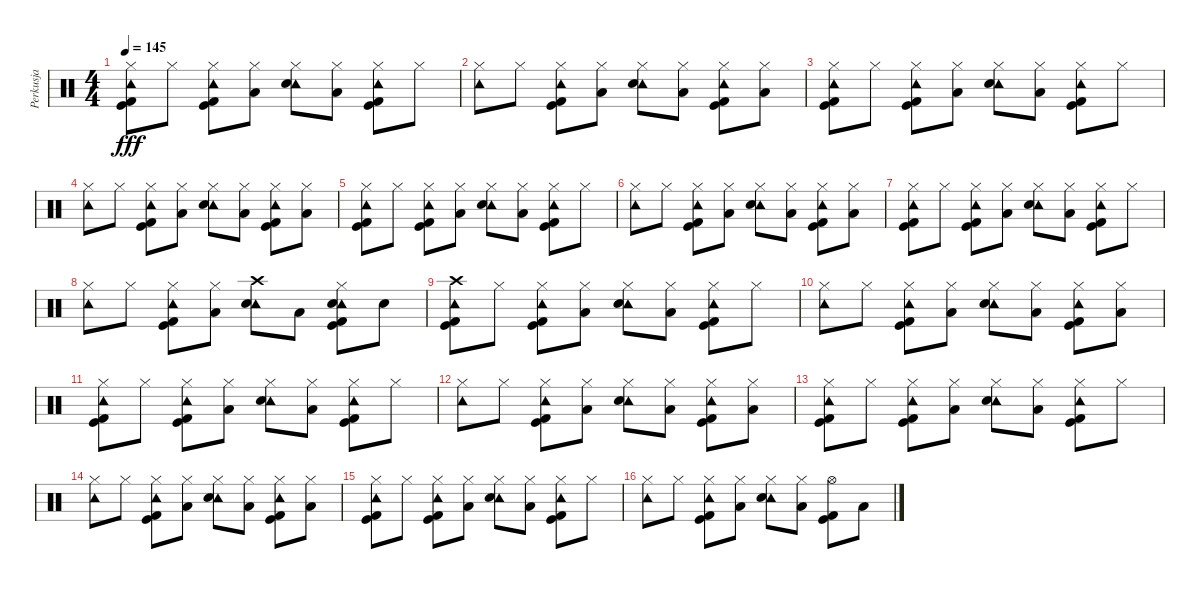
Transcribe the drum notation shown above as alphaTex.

\track ("Perkusja" "Perkusja") {instrument percussion}
\staff {score}
\articulation defaults
\ts (4 4)
\tempo 145
\clef neutral
\ks c
("Hi-Hat (closed)" "Tambourine (hit)" "Kick (hit)" "Kick (hit) 2").8{dy fff} "Hi-Hat (closed)".8 ("Hi-Hat (closed)" "Tambourine (hit)" "Kick (hit)" "Kick (hit) 2").8 ("Hi-Hat (closed)" "Low Floor Tom (hit)").8 ("Hi-Hat (closed)" "Tambourine (hit)" "Electric Snare (hit)").8 ("Hi-Hat (closed)" "Low Floor Tom (hit)").8 ("Hi-Hat (closed)" "Tambourine (hit)" "Kick (hit)" "Kick (hit) 2").8 "Hi-Hat (closed)".8 |
("Hi-Hat (closed)" "Tambourine (hit)").8 "Hi-Hat (closed)".8 ("Hi-Hat (closed)" "Tambourine (hit)" "Kick (hit)" "Kick (hit) 2").8 ("Hi-Hat (closed)" "Low Floor Tom (hit)").8 ("Hi-Hat (closed)" "Tambourine (hit)" "Electric Snare (hit)").8 ("Hi-Hat (closed)" "Low Floor Tom (hit)").8 ("Hi-Hat (closed)" "Tambourine (hit)" "Kick (hit)" "Kick (hit) 2").8 ("Hi-Hat (closed)" "Low Floor Tom (hit)").8 |
("Hi-Hat (closed)" "Tambourine (hit)" "Kick (hit)" "Kick (hit) 2").8 "Hi-Hat (closed)".8 ("Hi-Hat (closed)" "Tambourine (hit)" "Kick (hit)" "Kick (hit) 2").8 ("Hi-Hat (closed)" "Low Floor Tom (hit)").8 ("Hi-Hat (closed)" "Tambourine (hit)" "Electric Snare (hit)").8 ("Hi-Hat (closed)" "Low Floor Tom (hit)").8 ("Hi-Hat (closed)" "Tambourine (hit)" "Kick (hit)" "Kick (hit) 2").8 "Hi-Hat (closed)".8 |
("Hi-Hat (closed)" "Tambourine (hit)").8 "Hi-Hat (closed)".8 ("Hi-Hat (closed)" "Tambourine (hit)" "Kick (hit)" "Kick (hit) 2").8 ("Hi-Hat (closed)" "Low Floor Tom (hit)").8 ("Hi-Hat (closed)" "Tambourine (hit)" "Electric Snare (hit)").8 ("Hi-Hat (closed)" "Low Floor Tom (hit)").8 ("Hi-Hat (closed)" "Tambourine (hit)" "Kick (hit)" "Kick (hit) 2").8 ("Hi-Hat (closed)" "Low Floor Tom (hit)").8 |
("Hi-Hat (closed)" "Tambourine (hit)" "Kick (hit)" "Kick (hit) 2").8 "Hi-Hat (closed)".8 ("Hi-Hat (closed)" "Tambourine (hit)" "Kick (hit)" "Kick (hit) 2").8 ("Hi-Hat (closed)" "Low Floor Tom (hit)").8 ("Hi-Hat (closed)" "Tambourine (hit)" "Electric Snare (hit)").8 ("Hi-Hat (closed)" "Low Floor Tom (hit)").8 ("Hi-Hat (closed)" "Tambourine (hit)" "Kick (hit)" "Kick (hit) 2").8 "Hi-Hat (closed)".8 |
("Hi-Hat (closed)" "Tambourine (hit)").8 "Hi-Hat (closed)".8 ("Hi-Hat (closed)" "Tambourine (hit)" "Kick (hit)" "Kick (hit) 2").8 ("Hi-Hat (closed)" "Low Floor Tom (hit)").8 ("Hi-Hat (closed)" "Tambourine (hit)" "Electric Snare (hit)").8 ("Hi-Hat (closed)" "Low Floor Tom (hit)").8 ("Hi-Hat (closed)" "Tambourine (hit)" "Kick (hit)" "Kick (hit) 2").8 ("Hi-Hat (closed)" "Low Floor Tom (hit)").8 |
("Hi-Hat (closed)" "Tambourine (hit)" "Kick (hit)" "Kick (hit) 2").8 "Hi-Hat (closed)".8 ("Hi-Hat (closed)" "Tambourine (hit)" "Kick (hit)" "Kick (hit) 2").8 ("Hi-Hat (closed)" "Low Floor Tom (hit)").8 ("Hi-Hat (closed)" "Tambourine (hit)" "Electric Snare (hit)").8 ("Hi-Hat (closed)" "Low Floor Tom (hit)").8 ("Hi-Hat (closed)" "Tambourine (hit)" "Kick (hit)" "Kick (hit) 2").8 "Hi-Hat (closed)".8 |
("Hi-Hat (closed)" "Tambourine (hit)").8 "Hi-Hat (closed)".8 ("Hi-Hat (closed)" "Tambourine (hit)" "Kick (hit)" "Kick (hit) 2").8 ("Hi-Hat (closed)" "Low Floor Tom (hit)").8 ("Crash high (hit)" "Tambourine (hit)" "Electric Snare (hit)").8 "Low Floor Tom (hit)".8 ("Hi-Hat (closed)" "Tambourine (hit)" "Electric Snare (hit)" "Kick (hit)" "Kick (hit) 2").8 "Electric Snare (hit)".8 |
("Crash high (hit)" "Tambourine (hit)" "Kick (hit)" "Kick (hit) 2").8 "Hi-Hat (closed)".8 ("Hi-Hat (closed)" "Tambourine (hit)" "Kick (hit)" "Kick (hit) 2").8 ("Hi-Hat (closed)" "Low Floor Tom (hit)").8 ("Hi-Hat (closed)" "Tambourine (hit)" "Electric Snare (hit)").8 ("Hi-Hat (closed)" "Low Floor Tom (hit)").8 ("Hi-Hat (closed)" "Tambourine (hit)" "Kick (hit)" "Kick (hit) 2").8 "Hi-Hat (closed)".8 |
("Hi-Hat (closed)" "Tambourine (hit)").8 "Hi-Hat (closed)".8 ("Hi-Hat (closed)" "Tambourine (hit)" "Kick (hit)" "Kick (hit) 2").8 ("Hi-Hat (closed)" "Low Floor Tom (hit)").8 ("Hi-Hat (closed)" "Tambourine (hit)" "Electric Snare (hit)").8 ("Hi-Hat (closed)" "Low Floor Tom (hit)").8 ("Hi-Hat (closed)" "Tambourine (hit)" "Kick (hit)" "Kick (hit) 2").8 ("Hi-Hat (closed)" "Low Floor Tom (hit)").8 |
("Hi-Hat (closed)" "Tambourine (hit)" "Kick (hit)" "Kick (hit) 2").8 "Hi-Hat (closed)".8 ("Hi-Hat (closed)" "Tambourine (hit)" "Kick (hit)" "Kick (hit) 2").8 ("Hi-Hat (closed)" "Low Floor Tom (hit)").8 ("Hi-Hat (closed)" "Tambourine (hit)" "Electric Snare (hit)").8 ("Hi-Hat (closed)" "Low Floor Tom (hit)").8 ("Hi-Hat (closed)" "Tambourine (hit)" "Kick (hit)" "Kick (hit) 2").8 "Hi-Hat (closed)".8 |
("Hi-Hat (closed)" "Tambourine (hit)").8 "Hi-Hat (closed)".8 ("Hi-Hat (closed)" "Tambourine (hit)" "Kick (hit)" "Kick (hit) 2").8 ("Hi-Hat (closed)" "Low Floor Tom (hit)").8 ("Hi-Hat (closed)" "Tambourine (hit)" "Electric Snare (hit)").8 ("Hi-Hat (closed)" "Low Floor Tom (hit)").8 ("Hi-Hat (closed)" "Tambourine (hit)" "Kick (hit)" "Kick (hit) 2").8 ("Hi-Hat (closed)" "Low Floor Tom (hit)").8 |
("Hi-Hat (closed)" "Tambourine (hit)" "Kick (hit)" "Kick (hit) 2").8 "Hi-Hat (closed)".8 ("Hi-Hat (closed)" "Tambourine (hit)" "Kick (hit)" "Kick (hit) 2").8 ("Hi-Hat (closed)" "Low Floor Tom (hit)").8 ("Hi-Hat (closed)" "Tambourine (hit)" "Electric Snare (hit)").8 ("Hi-Hat (closed)" "Low Floor Tom (hit)").8 ("Hi-Hat (closed)" "Tambourine (hit)" "Kick (hit)" "Kick (hit) 2").8 "Hi-Hat (closed)".8 |
("Hi-Hat (closed)" "Tambourine (hit)").8 "Hi-Hat (closed)".8 ("Hi-Hat (closed)" "Tambourine (hit)" "Kick (hit)" "Kick (hit) 2").8 ("Hi-Hat (closed)" "Low Floor Tom (hit)").8 ("Hi-Hat (closed)" "Tambourine (hit)" "Electric Snare (hit)").8 ("Hi-Hat (closed)" "Low Floor Tom (hit)").8 ("Hi-Hat (closed)" "Tambourine (hit)" "Kick (hit)" "Kick (hit) 2").8 ("Hi-Hat (closed)" "Low Floor Tom (hit)").8 |
("Hi-Hat (closed)" "Tambourine (hit)" "Kick (hit)" "Kick (hit) 2").8 "Hi-Hat (closed)".8 ("Hi-Hat (closed)" "Tambourine (hit)" "Kick (hit)" "Kick (hit) 2").8 ("Hi-Hat (closed)" "Low Floor Tom (hit)").8 ("Hi-Hat (closed)" "Tambourine (hit)" "Electric Snare (hit)").8 ("Hi-Hat (closed)" "Low Floor Tom (hit)").8 ("Hi-Hat (closed)" "Tambourine (hit)" "Kick (hit)" "Kick (hit) 2").8 "Hi-Hat (closed)".8 |
("Hi-Hat (closed)" "Tambourine (hit)").8 "Hi-Hat (closed)".8 ("Hi-Hat (closed)" "Tambourine (hit)" "Kick (hit)" "Kick (hit) 2").8 ("Hi-Hat (closed)" "Low Floor Tom (hit)").8 ("Hi-Hat (closed)" "Tambourine (hit)" "Electric Snare (hit)").8 ("Hi-Hat (closed)" "Low Floor Tom (hit)").8 ("Hi-Hat (open)" "Kick (hit)" "Kick (hit) 2").8 "Low Floor Tom (hit)".8
